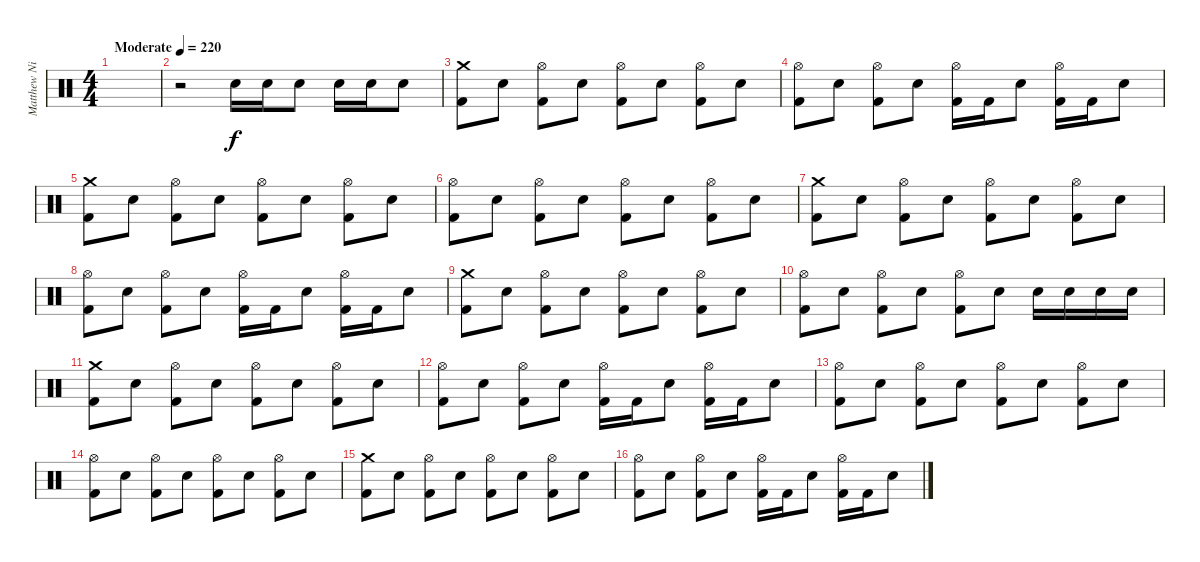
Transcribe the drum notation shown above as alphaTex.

\track ("Matthew Nicholls" "Matthew Ni") {instrument percussion}
\staff {score}
\articulation defaults
\ts (4 4)
\tempo (220 "Moderate")
\clef neutral
\ks c
|
r.2 "Electric Snare (hit)".16 "Electric Snare (hit)".16 "Electric Snare (hit)".8 "Electric Snare (hit)".16 "Electric Snare (hit)".16 "Electric Snare (hit)".8 |
("Crash medium (hit)" "Kick (hit) 2").8 "Electric Snare (hit)".8 ("Hi-Hat (open)" "Kick (hit) 2").8 "Electric Snare (hit)".8 ("Hi-Hat (open)" "Kick (hit) 2").8 "Electric Snare (hit)".8 ("Hi-Hat (open)" "Kick (hit) 2").8 "Electric Snare (hit)".8 |
("Hi-Hat (open)" "Kick (hit) 2").8 "Electric Snare (hit)".8 ("Hi-Hat (open)" "Kick (hit) 2").8 "Electric Snare (hit)".8 ("Hi-Hat (open)" "Kick (hit) 2").16 "Kick (hit) 2".16 "Electric Snare (hit)".8 ("Hi-Hat (open)" "Kick (hit) 2").16 "Kick (hit) 2".16 "Electric Snare (hit)".8 |
("Crash medium (hit)" "Kick (hit) 2").8 "Electric Snare (hit)".8 ("Hi-Hat (open)" "Kick (hit) 2").8 "Electric Snare (hit)".8 ("Hi-Hat (open)" "Kick (hit) 2").8 "Electric Snare (hit)".8 ("Hi-Hat (open)" "Kick (hit) 2").8 "Electric Snare (hit)".8 |
("Hi-Hat (open)" "Kick (hit) 2").8 "Electric Snare (hit)".8 ("Hi-Hat (open)" "Kick (hit) 2").8 "Electric Snare (hit)".8 ("Hi-Hat (open)" "Kick (hit) 2").8 "Electric Snare (hit)".8 ("Hi-Hat (open)" "Kick (hit) 2").8 "Electric Snare (hit)".8 |
("Crash medium (hit)" "Kick (hit) 2").8 "Electric Snare (hit)".8 ("Hi-Hat (open)" "Kick (hit) 2").8 "Electric Snare (hit)".8 ("Hi-Hat (open)" "Kick (hit) 2").8 "Electric Snare (hit)".8 ("Hi-Hat (open)" "Kick (hit) 2").8 "Electric Snare (hit)".8 |
("Hi-Hat (open)" "Kick (hit) 2").8 "Electric Snare (hit)".8 ("Hi-Hat (open)" "Kick (hit) 2").8 "Electric Snare (hit)".8 ("Hi-Hat (open)" "Kick (hit) 2").16 "Kick (hit) 2".16 "Electric Snare (hit)".8 ("Hi-Hat (open)" "Kick (hit) 2").16 "Kick (hit) 2".16 "Electric Snare (hit)".8 |
("Crash medium (hit)" "Kick (hit) 2").8 "Electric Snare (hit)".8 ("Hi-Hat (open)" "Kick (hit) 2").8 "Electric Snare (hit)".8 ("Hi-Hat (open)" "Kick (hit) 2").8 "Electric Snare (hit)".8 ("Hi-Hat (open)" "Kick (hit) 2").8 "Electric Snare (hit)".8 |
("Hi-Hat (open)" "Kick (hit) 2").8 "Electric Snare (hit)".8 ("Hi-Hat (open)" "Kick (hit) 2").8 "Electric Snare (hit)".8 ("Hi-Hat (open)" "Kick (hit) 2").8 "Electric Snare (hit)".8 "Electric Snare (hit)".16 "Electric Snare (hit)".16 "Electric Snare (hit)".16 "Electric Snare (hit)".16 |
("Crash medium (hit)" "Kick (hit) 2").8 "Electric Snare (hit)".8 ("Hi-Hat (open)" "Kick (hit) 2").8 "Electric Snare (hit)".8 ("Hi-Hat (open)" "Kick (hit) 2").8 "Electric Snare (hit)".8 ("Hi-Hat (open)" "Kick (hit) 2").8 "Electric Snare (hit)".8 |
("Hi-Hat (open)" "Kick (hit) 2").8 "Electric Snare (hit)".8 ("Hi-Hat (open)" "Kick (hit) 2").8 "Electric Snare (hit)".8 ("Hi-Hat (open)" "Kick (hit) 2").16 "Kick (hit) 2".16 "Electric Snare (hit)".8 ("Hi-Hat (open)" "Kick (hit) 2").16 "Kick (hit) 2".16 "Electric Snare (hit)".8 |
("Hi-Hat (open)" "Kick (hit) 2").8 "Electric Snare (hit)".8 ("Hi-Hat (open)" "Kick (hit) 2").8 "Electric Snare (hit)".8 ("Hi-Hat (open)" "Kick (hit) 2").8 "Electric Snare (hit)".8 ("Hi-Hat (open)" "Kick (hit) 2").8 "Electric Snare (hit)".8 |
("Hi-Hat (open)" "Kick (hit) 2").8 "Electric Snare (hit)".8 ("Hi-Hat (open)" "Kick (hit) 2").8 "Electric Snare (hit)".8 ("Hi-Hat (open)" "Kick (hit) 2").8 "Electric Snare (hit)".8 ("Hi-Hat (open)" "Kick (hit) 2").8 "Electric Snare (hit)".8 |
("Crash medium (hit)" "Kick (hit) 2").8 "Electric Snare (hit)".8 ("Hi-Hat (open)" "Kick (hit) 2").8 "Electric Snare (hit)".8 ("Hi-Hat (open)" "Kick (hit) 2").8 "Electric Snare (hit)".8 ("Hi-Hat (open)" "Kick (hit) 2").8 "Electric Snare (hit)".8 |
("Hi-Hat (open)" "Kick (hit) 2").8 "Electric Snare (hit)".8 ("Hi-Hat (open)" "Kick (hit) 2").8 "Electric Snare (hit)".8 ("Hi-Hat (open)" "Kick (hit) 2").16 "Kick (hit) 2".16 "Electric Snare (hit)".8 ("Hi-Hat (open)" "Kick (hit) 2").16 "Kick (hit) 2".16 "Electric Snare (hit)".8
